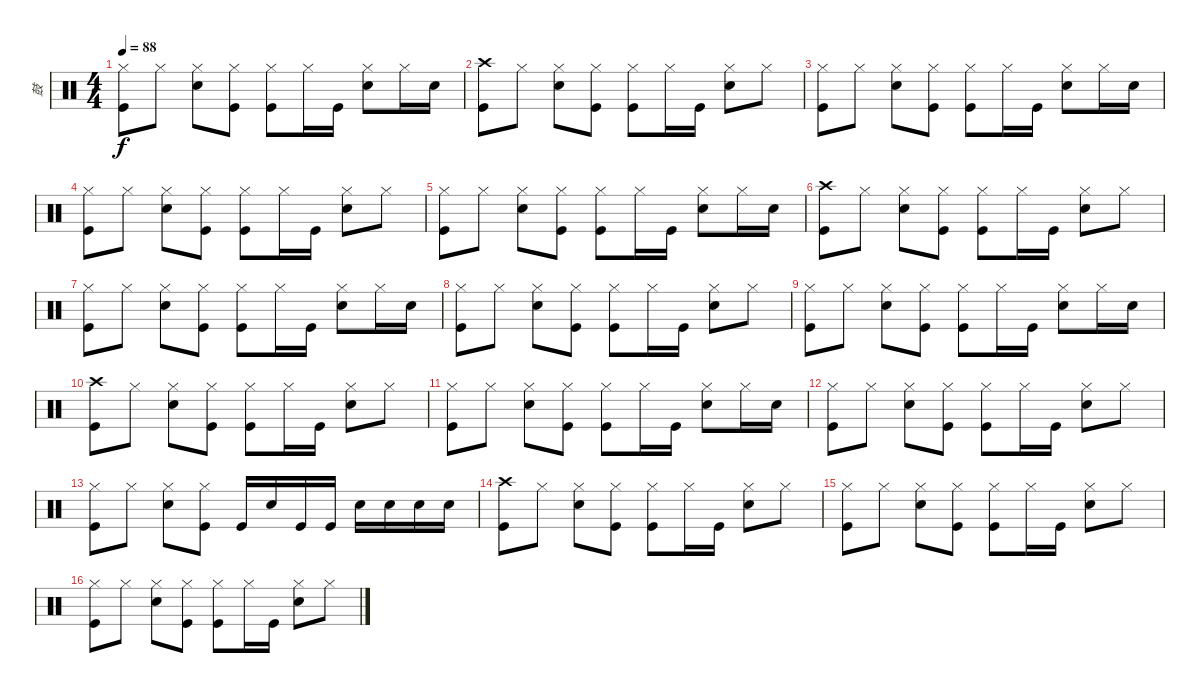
\track ("鼓" "鼓") {instrument percussion}
\staff {score}
\articulation defaults
\ts (4 4)
\tempo 88
\clef neutral
\ks c
("Hi-Hat (closed)" "Kick (hit)").8{dy f} "Hi-Hat (closed)".8 ("Hi-Hat (closed)" "Snare (hit) 2").8 ("Hi-Hat (closed)" "Kick (hit)").8 ("Hi-Hat (closed)" "Kick (hit)").8 "Hi-Hat (closed)".16 "Kick (hit)".16 ("Hi-Hat (closed)" "Snare (hit) 2").8 "Hi-Hat (closed)".16 "Snare (hit) 2".16 |
("Crash high (hit)" "Kick (hit)").8 "Hi-Hat (closed)".8 ("Hi-Hat (closed)" "Snare (hit) 2").8 ("Hi-Hat (closed)" "Kick (hit)").8 ("Hi-Hat (closed)" "Kick (hit)").8 "Hi-Hat (closed)".16 "Kick (hit)".16 ("Hi-Hat (closed)" "Snare (hit) 2").8 "Hi-Hat (closed)".8 |
("Hi-Hat (closed)" "Kick (hit)").8 "Hi-Hat (closed)".8 ("Hi-Hat (closed)" "Snare (hit) 2").8 ("Hi-Hat (closed)" "Kick (hit)").8 ("Hi-Hat (closed)" "Kick (hit)").8 "Hi-Hat (closed)".16 "Kick (hit)".16 ("Hi-Hat (closed)" "Snare (hit) 2").8 "Hi-Hat (closed)".16 "Snare (hit) 2".16 |
("Hi-Hat (closed)" "Kick (hit)").8 "Hi-Hat (closed)".8 ("Hi-Hat (closed)" "Snare (hit) 2").8 ("Hi-Hat (closed)" "Kick (hit)").8 ("Hi-Hat (closed)" "Kick (hit)").8 "Hi-Hat (closed)".16 "Kick (hit)".16 ("Hi-Hat (closed)" "Snare (hit) 2").8 "Hi-Hat (closed)".8 |
("Hi-Hat (closed)" "Kick (hit)").8 "Hi-Hat (closed)".8 ("Hi-Hat (closed)" "Snare (hit) 2").8 ("Hi-Hat (closed)" "Kick (hit)").8 ("Hi-Hat (closed)" "Kick (hit)").8 "Hi-Hat (closed)".16 "Kick (hit)".16 ("Hi-Hat (closed)" "Snare (hit) 2").8 "Hi-Hat (closed)".16 "Snare (hit) 2".16 |
("Crash high (hit)" "Kick (hit)").8 "Hi-Hat (closed)".8 ("Hi-Hat (closed)" "Snare (hit) 2").8 ("Hi-Hat (closed)" "Kick (hit)").8 ("Hi-Hat (closed)" "Kick (hit)").8 "Hi-Hat (closed)".16 "Kick (hit)".16 ("Hi-Hat (closed)" "Snare (hit) 2").8 "Hi-Hat (closed)".8 |
("Hi-Hat (closed)" "Kick (hit)").8 "Hi-Hat (closed)".8 ("Hi-Hat (closed)" "Snare (hit) 2").8 ("Hi-Hat (closed)" "Kick (hit)").8 ("Hi-Hat (closed)" "Kick (hit)").8 "Hi-Hat (closed)".16 "Kick (hit)".16 ("Hi-Hat (closed)" "Snare (hit) 2").8 "Hi-Hat (closed)".16 "Snare (hit) 2".16 |
("Hi-Hat (closed)" "Kick (hit)").8 "Hi-Hat (closed)".8 ("Hi-Hat (closed)" "Snare (hit) 2").8 ("Hi-Hat (closed)" "Kick (hit)").8 ("Hi-Hat (closed)" "Kick (hit)").8 "Hi-Hat (closed)".16 "Kick (hit)".16 ("Hi-Hat (closed)" "Snare (hit) 2").8 "Hi-Hat (closed)".8 |
("Hi-Hat (closed)" "Kick (hit)").8 "Hi-Hat (closed)".8 ("Hi-Hat (closed)" "Snare (hit) 2").8 ("Hi-Hat (closed)" "Kick (hit)").8 ("Hi-Hat (closed)" "Kick (hit)").8 "Hi-Hat (closed)".16 "Kick (hit)".16 ("Hi-Hat (closed)" "Snare (hit) 2").8 "Hi-Hat (closed)".16 "Snare (hit) 2".16 |
("Crash high (hit)" "Kick (hit)").8 "Hi-Hat (closed)".8 ("Hi-Hat (closed)" "Snare (hit) 2").8 ("Hi-Hat (closed)" "Kick (hit)").8 ("Hi-Hat (closed)" "Kick (hit)").8 "Hi-Hat (closed)".16 "Kick (hit)".16 ("Hi-Hat (closed)" "Snare (hit) 2").8 "Hi-Hat (closed)".8 |
("Hi-Hat (closed)" "Kick (hit)").8 "Hi-Hat (closed)".8 ("Hi-Hat (closed)" "Snare (hit) 2").8 ("Hi-Hat (closed)" "Kick (hit)").8 ("Hi-Hat (closed)" "Kick (hit)").8 "Hi-Hat (closed)".16 "Kick (hit)".16 ("Hi-Hat (closed)" "Snare (hit) 2").8 "Hi-Hat (closed)".16 "Snare (hit) 2".16 |
("Hi-Hat (closed)" "Kick (hit)").8 "Hi-Hat (closed)".8 ("Hi-Hat (closed)" "Snare (hit) 2").8 ("Hi-Hat (closed)" "Kick (hit)").8 ("Hi-Hat (closed)" "Kick (hit)").8 "Hi-Hat (closed)".16 "Kick (hit)".16 ("Hi-Hat (closed)" "Snare (hit) 2").8 "Hi-Hat (closed)".8 |
("Hi-Hat (closed)" "Kick (hit)").8 "Hi-Hat (closed)".8 ("Hi-Hat (closed)" "Snare (hit) 2").8 ("Hi-Hat (closed)" "Kick (hit)").8 "Kick (hit)".16 "Snare (hit) 2".16 "Kick (hit)".16 "Kick (hit)".16 "Snare (hit) 2".16 "Snare (hit) 2".16 "Snare (hit) 2".16 "Snare (hit) 2".16 |
("Crash high (hit)" "Kick (hit)").8 "Hi-Hat (closed)".8 ("Hi-Hat (closed)" "Snare (hit) 2").8 ("Hi-Hat (closed)" "Kick (hit)").8 ("Hi-Hat (closed)" "Kick (hit)").8 "Hi-Hat (closed)".16 "Kick (hit)".16 ("Hi-Hat (closed)" "Snare (hit) 2").8 "Hi-Hat (closed)".8 |
("Hi-Hat (closed)" "Kick (hit)").8 "Hi-Hat (closed)".8 ("Hi-Hat (closed)" "Snare (hit) 2").8 ("Hi-Hat (closed)" "Kick (hit)").8 ("Hi-Hat (closed)" "Kick (hit)").8 "Hi-Hat (closed)".16 "Kick (hit)".16 ("Hi-Hat (closed)" "Snare (hit) 2").8 "Hi-Hat (closed)".8 |
("Hi-Hat (closed)" "Kick (hit)").8 "Hi-Hat (closed)".8 ("Hi-Hat (closed)" "Snare (hit) 2").8 ("Hi-Hat (closed)" "Kick (hit)").8 ("Hi-Hat (closed)" "Kick (hit)").8 "Hi-Hat (closed)".16 "Kick (hit)".16 ("Hi-Hat (closed)" "Snare (hit) 2").8 "Hi-Hat (closed)".8
